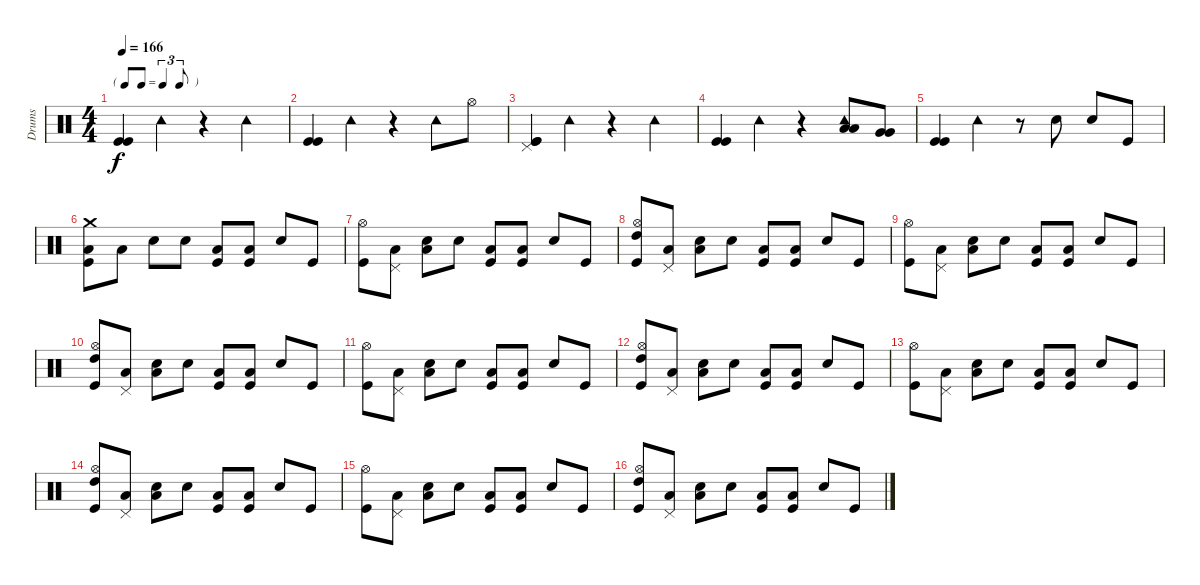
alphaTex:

\track ("Drums" "Drums") {instrument percussion}
\staff {score}
\articulation defaults
\ts (4 4)
\tf triplet8th
\tempo 166
\clef neutral
\ks c
("Kick (hit)" "Kick (hit)").4{dy f} "Tambourine (hit)".4 r.4 "Tambourine (hit)".4 |
("Kick (hit)" "Kick (hit)").4 "Tambourine (hit)".4 r.4 "Tambourine (hit)".8 "Hi-Hat (open)".8 |
("Pedal Hi-Hat (hit)" "Kick (hit)" "Kick (hit)").4 "Tambourine (hit)".4 r.4 "Tambourine (hit)".4 |
("Kick (hit)" "Kick (hit)").4 "Tambourine (hit)".4 r.4 ("Tambourine (hit)" "Low Tom (hit)" "Low Tom (hit)").8 ("Very Low Tom (hit)" "Very Low Tom (hit)").8 |
("Kick (hit)" "Kick (hit)").4 "Tambourine (hit)".4 r.8 "Snare (hit) 2".8 "Snare (hit) 2".8 "Kick (hit)".8 |
("Crash medium (hit)" "Low Tom (hit)" "Kick (hit)").8 "Low Floor Tom (hit)".8 "Snare (hit) 2".8 "Snare (hit) 2".8 ("Low Tom (hit)" "Kick (hit)").8 ("Low Floor Tom (hit)" "Kick (hit)").8 "Snare (hit) 2".8 "Kick (hit)".8 |
("Hi-Hat (open)" "Kick (hit)").8 ("Pedal Hi-Hat (hit)" "Low Tom (hit)").8 ("Snare (hit) 2" "Low Floor Tom (hit)").8 "Snare (hit) 2".8 ("Low Tom (hit)" "Kick (hit)").8 ("Low Floor Tom (hit)" "Kick (hit)").8 "Snare (hit) 2".8 "Kick (hit)".8 |
("Hi-Hat (open)" "High Tom (hit)" "Kick (hit)").8 ("Pedal Hi-Hat (hit)" "Low Tom (hit)").8 ("Snare (hit) 2" "Low Floor Tom (hit)").8 "Snare (hit) 2".8 ("Low Tom (hit)" "Kick (hit)").8 ("Low Floor Tom (hit)" "Kick (hit)").8 "Snare (hit) 2".8 "Kick (hit)".8 |
("Hi-Hat (open)" "Kick (hit)").8 ("Pedal Hi-Hat (hit)" "Low Tom (hit)").8 ("Snare (hit) 2" "Low Floor Tom (hit)").8 "Snare (hit) 2".8 ("Low Tom (hit)" "Kick (hit)").8 ("Low Floor Tom (hit)" "Kick (hit)").8 "Snare (hit) 2".8 "Kick (hit)".8 |
("Hi-Hat (open)" "High Tom (hit)" "Kick (hit)").8 ("Pedal Hi-Hat (hit)" "Low Tom (hit)").8 ("Snare (hit) 2" "Low Floor Tom (hit)").8 "Snare (hit) 2".8 ("Low Tom (hit)" "Kick (hit)").8 ("Low Floor Tom (hit)" "Kick (hit)").8 "Snare (hit) 2".8 "Kick (hit)".8 |
("Hi-Hat (open)" "Kick (hit)").8 ("Pedal Hi-Hat (hit)" "Low Tom (hit)").8 ("Snare (hit) 2" "Low Floor Tom (hit)").8 "Snare (hit) 2".8 ("Low Tom (hit)" "Kick (hit)").8 ("Low Floor Tom (hit)" "Kick (hit)").8 "Snare (hit) 2".8 "Kick (hit)".8 |
("Hi-Hat (open)" "High Tom (hit)" "Kick (hit)").8 ("Pedal Hi-Hat (hit)" "Low Tom (hit)").8 ("Snare (hit) 2" "Low Floor Tom (hit)").8 "Snare (hit) 2".8 ("Low Tom (hit)" "Kick (hit)").8 ("Low Floor Tom (hit)" "Kick (hit)").8 "Snare (hit) 2".8 "Kick (hit)".8 |
("Hi-Hat (open)" "Kick (hit)").8 ("Pedal Hi-Hat (hit)" "Low Tom (hit)").8 ("Snare (hit) 2" "Low Floor Tom (hit)").8 "Snare (hit) 2".8 ("Low Tom (hit)" "Kick (hit)").8 ("Low Floor Tom (hit)" "Kick (hit)").8 "Snare (hit) 2".8 "Kick (hit)".8 |
("Hi-Hat (open)" "High Tom (hit)" "Kick (hit)").8 ("Pedal Hi-Hat (hit)" "Low Tom (hit)").8 ("Snare (hit) 2" "Low Floor Tom (hit)").8 "Snare (hit) 2".8 ("Low Tom (hit)" "Kick (hit)").8 ("Low Floor Tom (hit)" "Kick (hit)").8 "Snare (hit) 2".8 "Kick (hit)".8 |
("Hi-Hat (open)" "Kick (hit)").8 ("Pedal Hi-Hat (hit)" "Low Tom (hit)").8 ("Snare (hit) 2" "Low Floor Tom (hit)").8 "Snare (hit) 2".8 ("Low Tom (hit)" "Kick (hit)").8 ("Low Floor Tom (hit)" "Kick (hit)").8 "Snare (hit) 2".8 "Kick (hit)".8 |
("Hi-Hat (open)" "High Tom (hit)" "Kick (hit)").8 ("Pedal Hi-Hat (hit)" "Low Tom (hit)").8 ("Snare (hit) 2" "Low Floor Tom (hit)").8 "Snare (hit) 2".8 ("Low Tom (hit)" "Kick (hit)").8 ("Low Floor Tom (hit)" "Kick (hit)").8 "Snare (hit) 2".8 "Kick (hit)".8
